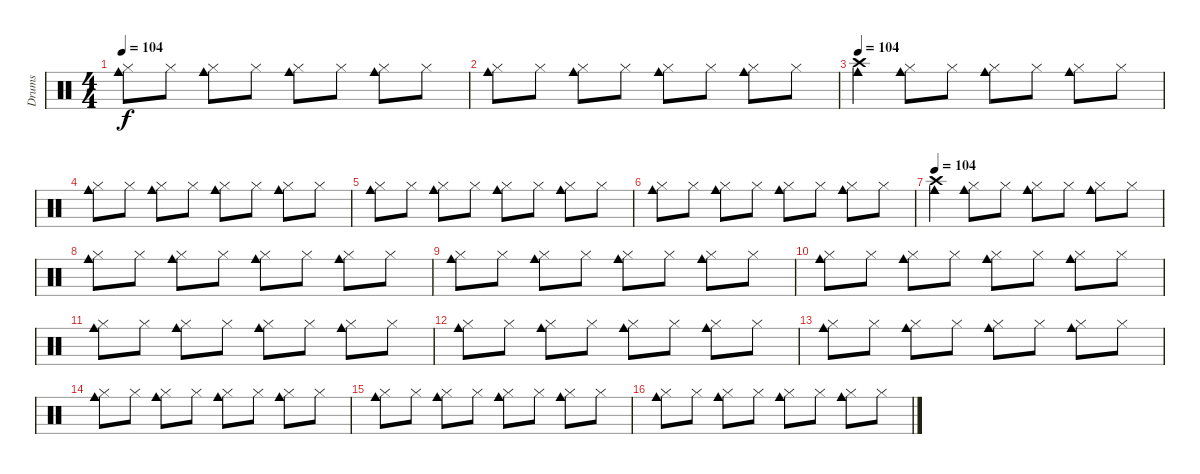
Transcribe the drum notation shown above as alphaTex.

\track ("Drums" "Drums") {instrument percussion}
\staff {score}
\articulation defaults
\ts (4 4)
\tempo 104
\clef neutral
\ks c
("Cowbell medium (hit)" "Hi-Hat (closed)").8{dy f} "Hi-Hat (closed)".8 ("Cowbell medium (hit)" "Hi-Hat (closed)").8 "Hi-Hat (closed)".8 ("Cowbell medium (hit)" "Hi-Hat (closed)").8 "Hi-Hat (closed)".8 ("Cowbell medium (hit)" "Hi-Hat (closed)").8 "Hi-Hat (closed)".8 |
("Cowbell medium (hit)" "Hi-Hat (closed)").8 "Hi-Hat (closed)".8 ("Cowbell medium (hit)" "Hi-Hat (closed)").8 "Hi-Hat (closed)".8 ("Cowbell medium (hit)" "Hi-Hat (closed)").8 "Hi-Hat (closed)".8 ("Cowbell medium (hit)" "Hi-Hat (closed)").8 "Hi-Hat (closed)".8 |
\tempo 104
("Cowbell medium (hit)" "Crash high (hit)").4 ("Cowbell medium (hit)" "Hi-Hat (closed)").8 "Hi-Hat (closed)".8 ("Cowbell medium (hit)" "Hi-Hat (closed)").8 "Hi-Hat (closed)".8 ("Cowbell medium (hit)" "Hi-Hat (closed)").8 "Hi-Hat (closed)".8 |
("Cowbell medium (hit)" "Hi-Hat (closed)").8 "Hi-Hat (closed)".8 ("Cowbell medium (hit)" "Hi-Hat (closed)").8 "Hi-Hat (closed)".8 ("Cowbell medium (hit)" "Hi-Hat (closed)").8 "Hi-Hat (closed)".8 ("Cowbell medium (hit)" "Hi-Hat (closed)").8 "Hi-Hat (closed)".8 |
("Cowbell medium (hit)" "Hi-Hat (closed)").8 "Hi-Hat (closed)".8 ("Cowbell medium (hit)" "Hi-Hat (closed)").8 "Hi-Hat (closed)".8 ("Cowbell medium (hit)" "Hi-Hat (closed)").8 "Hi-Hat (closed)".8 ("Cowbell medium (hit)" "Hi-Hat (closed)").8 "Hi-Hat (closed)".8 |
("Cowbell medium (hit)" "Hi-Hat (closed)").8 "Hi-Hat (closed)".8 ("Cowbell medium (hit)" "Hi-Hat (closed)").8 "Hi-Hat (closed)".8 ("Cowbell medium (hit)" "Hi-Hat (closed)").8 "Hi-Hat (closed)".8 ("Cowbell medium (hit)" "Hi-Hat (closed)").8 "Hi-Hat (closed)".8 |
\tempo 104
("Cowbell medium (hit)" "Crash high (hit)").4 ("Cowbell medium (hit)" "Hi-Hat (closed)").8 "Hi-Hat (closed)".8 ("Cowbell medium (hit)" "Hi-Hat (closed)").8 "Hi-Hat (closed)".8 ("Cowbell medium (hit)" "Hi-Hat (closed)").8 "Hi-Hat (closed)".8 |
("Cowbell medium (hit)" "Hi-Hat (closed)").8 "Hi-Hat (closed)".8 ("Cowbell medium (hit)" "Hi-Hat (closed)").8 "Hi-Hat (closed)".8 ("Cowbell medium (hit)" "Hi-Hat (closed)").8 "Hi-Hat (closed)".8 ("Cowbell medium (hit)" "Hi-Hat (closed)").8 "Hi-Hat (closed)".8 |
("Cowbell medium (hit)" "Hi-Hat (closed)").8 "Hi-Hat (closed)".8 ("Cowbell medium (hit)" "Hi-Hat (closed)").8 "Hi-Hat (closed)".8 ("Cowbell medium (hit)" "Hi-Hat (closed)").8 "Hi-Hat (closed)".8 ("Cowbell medium (hit)" "Hi-Hat (closed)").8 "Hi-Hat (closed)".8 |
("Cowbell medium (hit)" "Hi-Hat (closed)").8 "Hi-Hat (closed)".8 ("Cowbell medium (hit)" "Hi-Hat (closed)").8 "Hi-Hat (closed)".8 ("Cowbell medium (hit)" "Hi-Hat (closed)").8 "Hi-Hat (closed)".8 ("Cowbell medium (hit)" "Hi-Hat (closed)").8 "Hi-Hat (closed)".8 |
("Cowbell medium (hit)" "Hi-Hat (closed)").8 "Hi-Hat (closed)".8 ("Cowbell medium (hit)" "Hi-Hat (closed)").8 "Hi-Hat (closed)".8 ("Cowbell medium (hit)" "Hi-Hat (closed)").8 "Hi-Hat (closed)".8 ("Cowbell medium (hit)" "Hi-Hat (closed)").8 "Hi-Hat (closed)".8 |
("Cowbell medium (hit)" "Hi-Hat (closed)").8 "Hi-Hat (closed)".8 ("Cowbell medium (hit)" "Hi-Hat (closed)").8 "Hi-Hat (closed)".8 ("Cowbell medium (hit)" "Hi-Hat (closed)").8 "Hi-Hat (closed)".8 ("Cowbell medium (hit)" "Hi-Hat (closed)").8 "Hi-Hat (closed)".8 |
("Cowbell medium (hit)" "Hi-Hat (closed)").8 "Hi-Hat (closed)".8 ("Cowbell medium (hit)" "Hi-Hat (closed)").8 "Hi-Hat (closed)".8 ("Cowbell medium (hit)" "Hi-Hat (closed)").8 "Hi-Hat (closed)".8 ("Cowbell medium (hit)" "Hi-Hat (closed)").8 "Hi-Hat (closed)".8 |
("Cowbell medium (hit)" "Hi-Hat (closed)").8 "Hi-Hat (closed)".8 ("Cowbell medium (hit)" "Hi-Hat (closed)").8 "Hi-Hat (closed)".8 ("Cowbell medium (hit)" "Hi-Hat (closed)").8 "Hi-Hat (closed)".8 ("Cowbell medium (hit)" "Hi-Hat (closed)").8 "Hi-Hat (closed)".8 |
("Cowbell medium (hit)" "Hi-Hat (closed)").8 "Hi-Hat (closed)".8 ("Cowbell medium (hit)" "Hi-Hat (closed)").8 "Hi-Hat (closed)".8 ("Cowbell medium (hit)" "Hi-Hat (closed)").8 "Hi-Hat (closed)".8 ("Cowbell medium (hit)" "Hi-Hat (closed)").8 "Hi-Hat (closed)".8 |
("Cowbell medium (hit)" "Hi-Hat (closed)").8 "Hi-Hat (closed)".8 ("Cowbell medium (hit)" "Hi-Hat (closed)").8 "Hi-Hat (closed)".8 ("Cowbell medium (hit)" "Hi-Hat (closed)").8 "Hi-Hat (closed)".8 ("Cowbell medium (hit)" "Hi-Hat (closed)").8 "Hi-Hat (closed)".8
